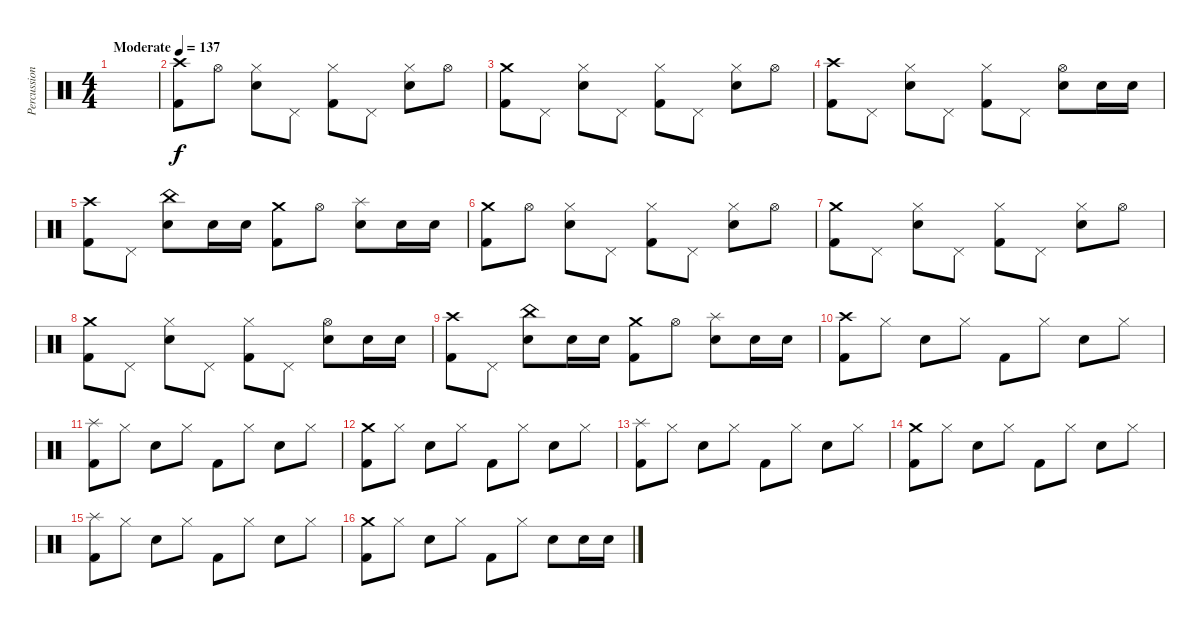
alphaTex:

\track ("Percussion" "Percussion") {instrument percussion}
\staff {score}
\articulation defaults
\ts (4 4)
\tempo (137 "Moderate")
\clef neutral
\ks c
|
("Crash high (hit)" "Kick (hit) 2").8 "Hi-Hat (open)".8 ("Hi-Hat (closed)" "Electric Snare (hit)").8 "Pedal Hi-Hat (hit)".8 ("Hi-Hat (closed)" "Kick (hit) 2").8 "Pedal Hi-Hat (hit)".8 ("Hi-Hat (closed)" "Electric Snare (hit)").8 "Hi-Hat (open)".8 |
("Crash medium (hit)" "Kick (hit) 2").8 "Pedal Hi-Hat (hit)".8 ("Hi-Hat (closed)" "Electric Snare (hit)").8 "Pedal Hi-Hat (hit)".8 ("Hi-Hat (closed)" "Kick (hit) 2").8 "Pedal Hi-Hat (hit)".8 ("Hi-Hat (closed)" "Electric Snare (hit)").8 "Hi-Hat (open)".8 |
("Crash high (hit)" "Kick (hit) 2").8 "Pedal Hi-Hat (hit)".8 ("Hi-Hat (closed)" "Electric Snare (hit)").8 "Pedal Hi-Hat (hit)".8 ("Hi-Hat (closed)" "Kick (hit) 2").8 "Pedal Hi-Hat (hit)".8 ("Hi-Hat (open)" "Electric Snare (hit)").8 "Electric Snare (hit)".16 "Electric Snare (hit)".16 |
("Crash high (hit)" "Kick (hit) 2").8 "Pedal Hi-Hat (hit)".8 ("China (hit)" "Electric Snare (hit)").8 "Electric Snare (hit)".16 "Electric Snare (hit)".16 ("Crash medium (hit)" "Kick (hit) 2").8 "Hi-Hat (open)".8 ("Splash (hit)" "Electric Snare (hit)").8 "Electric Snare (hit)".16 "Electric Snare (hit)".16 |
("Crash medium (hit)" "Kick (hit) 2").8 "Hi-Hat (open)".8 ("Hi-Hat (closed)" "Electric Snare (hit)").8 "Pedal Hi-Hat (hit)".8 ("Hi-Hat (closed)" "Kick (hit) 2").8 "Pedal Hi-Hat (hit)".8 ("Hi-Hat (closed)" "Electric Snare (hit)").8 "Hi-Hat (open)".8 |
("Crash medium (hit)" "Kick (hit) 2").8 "Pedal Hi-Hat (hit)".8 ("Hi-Hat (closed)" "Electric Snare (hit)").8 "Pedal Hi-Hat (hit)".8 ("Hi-Hat (closed)" "Kick (hit) 2").8 "Pedal Hi-Hat (hit)".8 ("Hi-Hat (closed)" "Electric Snare (hit)").8 "Hi-Hat (open)".8 |
("Crash medium (hit)" "Kick (hit) 2").8 "Pedal Hi-Hat (hit)".8 ("Hi-Hat (closed)" "Electric Snare (hit)").8 "Pedal Hi-Hat (hit)".8 ("Hi-Hat (closed)" "Kick (hit) 2").8 "Pedal Hi-Hat (hit)".8 ("Hi-Hat (open)" "Electric Snare (hit)").8 "Electric Snare (hit)".16 "Electric Snare (hit)".16 |
("Crash high (hit)" "Kick (hit) 2").8 "Pedal Hi-Hat (hit)".8 ("China (hit)" "Electric Snare (hit)").8 "Electric Snare (hit)".16 "Electric Snare (hit)".16 ("Crash medium (hit)" "Kick (hit) 2").8 "Hi-Hat (open)".8 ("Splash (hit)" "Electric Snare (hit)").8 "Electric Snare (hit)".16 "Electric Snare (hit)".16 |
("Crash high (hit)" "Kick (hit) 2").8 "Hi-Hat (closed)".8 "Electric Snare (hit)".8 "Hi-Hat (closed)".8 "Kick (hit) 2".8 "Hi-Hat (closed)".8 "Electric Snare (hit)".8 "Hi-Hat (closed)".8 |
("Splash (hit)" "Kick (hit) 2").8 "Hi-Hat (closed)".8 "Electric Snare (hit)".8 "Hi-Hat (closed)".8 "Kick (hit) 2".8 "Hi-Hat (closed)".8 "Electric Snare (hit)".8 "Hi-Hat (closed)".8 |
("Crash medium (hit)" "Kick (hit) 2").8 "Hi-Hat (closed)".8 "Electric Snare (hit)".8 "Hi-Hat (closed)".8 "Kick (hit) 2".8 "Hi-Hat (closed)".8 "Electric Snare (hit)".8 "Hi-Hat (closed)".8 |
("Splash (hit)" "Kick (hit) 2").8 "Hi-Hat (closed)".8 "Electric Snare (hit)".8 "Hi-Hat (closed)".8 "Kick (hit) 2".8 "Hi-Hat (closed)".8 "Electric Snare (hit)".8 "Hi-Hat (closed)".8 |
("Crash medium (hit)" "Kick (hit) 2").8 "Hi-Hat (closed)".8 "Electric Snare (hit)".8 "Hi-Hat (closed)".8 "Kick (hit) 2".8 "Hi-Hat (closed)".8 "Electric Snare (hit)".8 "Hi-Hat (closed)".8 |
("Splash (hit)" "Kick (hit) 2").8 "Hi-Hat (closed)".8 "Electric Snare (hit)".8 "Hi-Hat (closed)".8 "Kick (hit) 2".8 "Hi-Hat (closed)".8 "Electric Snare (hit)".8 "Hi-Hat (closed)".8 |
("Crash medium (hit)" "Kick (hit) 2").8 "Hi-Hat (closed)".8 "Electric Snare (hit)".8 "Hi-Hat (closed)".8 "Kick (hit) 2".8 "Hi-Hat (closed)".8 "Electric Snare (hit)".8 "Electric Snare (hit)".16 "Electric Snare (hit)".16
